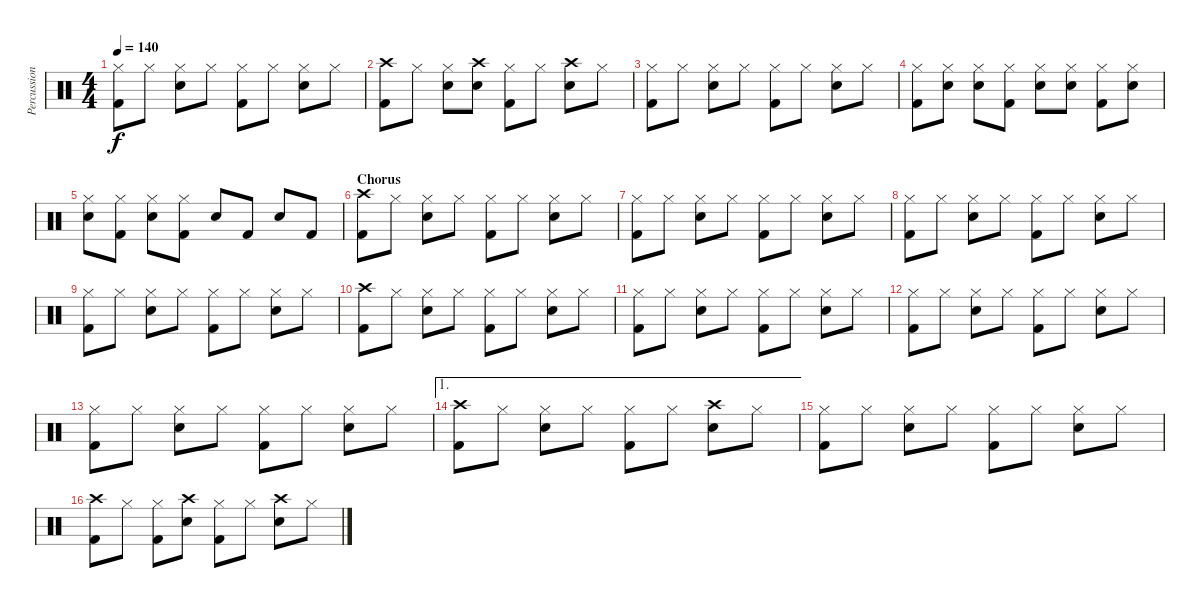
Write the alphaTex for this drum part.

\track ("Percussion" "Percussion") {instrument percussion}
\staff {score}
\articulation defaults
\ts (4 4)
\tempo 140
\clef neutral
\ks c
("Hi-Hat (closed)" "Kick (hit) 2").8{dy f} "Hi-Hat (closed)".8 ("Hi-Hat (closed)" "Electric Snare (hit)").8 "Hi-Hat (closed)".8 ("Hi-Hat (closed)" "Kick (hit) 2").8 "Hi-Hat (closed)".8 ("Hi-Hat (closed)" "Electric Snare (hit)").8 "Hi-Hat (closed)".8 |
("Crash high (hit)" "Kick (hit) 2").8 "Hi-Hat (closed)".8 ("Hi-Hat (closed)" "Electric Snare (hit)").8 ("Crash high (hit)" "Electric Snare (hit)").8 ("Hi-Hat (closed)" "Kick (hit) 2").8 "Hi-Hat (closed)".8 ("Crash high (hit)" "Electric Snare (hit)").8 "Hi-Hat (closed)".8 |
("Hi-Hat (closed)" "Kick (hit) 2").8 "Hi-Hat (closed)".8 ("Hi-Hat (closed)" "Electric Snare (hit)").8 "Hi-Hat (closed)".8 ("Hi-Hat (closed)" "Kick (hit) 2").8 "Hi-Hat (closed)".8 ("Hi-Hat (closed)" "Electric Snare (hit)").8 "Hi-Hat (closed)".8 |
("Hi-Hat (closed)" "Kick (hit) 2").8 ("Hi-Hat (closed)" "Electric Snare (hit)").8 ("Hi-Hat (closed)" "Electric Snare (hit)").8 ("Hi-Hat (closed)" "Kick (hit) 2").8 ("Hi-Hat (closed)" "Electric Snare (hit)").8 ("Hi-Hat (closed)" "Electric Snare (hit)").8 ("Hi-Hat (closed)" "Kick (hit) 2").8 ("Hi-Hat (closed)" "Electric Snare (hit)").8 |
("Hi-Hat (closed)" "Electric Snare (hit)").8 ("Hi-Hat (closed)" "Kick (hit) 2").8 ("Hi-Hat (closed)" "Electric Snare (hit)").8 ("Hi-Hat (closed)" "Kick (hit) 2").8 "Electric Snare (hit)".8 "Kick (hit) 2".8 "Electric Snare (hit)".8 "Kick (hit) 2".8 |
\section ("" "Chorus")
("Crash high (hit)" "Kick (hit) 2").8 "Hi-Hat (closed)".8 ("Hi-Hat (closed)" "Electric Snare (hit)").8 "Hi-Hat (closed)".8 ("Hi-Hat (closed)" "Kick (hit) 2").8 "Hi-Hat (closed)".8 ("Hi-Hat (closed)" "Electric Snare (hit)").8 "Hi-Hat (closed)".8 |
("Hi-Hat (closed)" "Kick (hit) 2").8 "Hi-Hat (closed)".8 ("Hi-Hat (closed)" "Electric Snare (hit)").8 "Hi-Hat (closed)".8 ("Hi-Hat (closed)" "Kick (hit) 2").8 "Hi-Hat (closed)".8 ("Hi-Hat (closed)" "Electric Snare (hit)").8 "Hi-Hat (closed)".8 |
("Hi-Hat (closed)" "Kick (hit) 2").8 "Hi-Hat (closed)".8 ("Hi-Hat (closed)" "Electric Snare (hit)").8 "Hi-Hat (closed)".8 ("Hi-Hat (closed)" "Kick (hit) 2").8 "Hi-Hat (closed)".8 ("Hi-Hat (closed)" "Electric Snare (hit)").8 "Hi-Hat (closed)".8 |
("Hi-Hat (closed)" "Kick (hit) 2").8 "Hi-Hat (closed)".8 ("Hi-Hat (closed)" "Electric Snare (hit)").8 "Hi-Hat (closed)".8 ("Hi-Hat (closed)" "Kick (hit) 2").8 "Hi-Hat (closed)".8 ("Hi-Hat (closed)" "Electric Snare (hit)").8 "Hi-Hat (closed)".8 |
("Crash high (hit)" "Kick (hit) 2").8 "Hi-Hat (closed)".8 ("Hi-Hat (closed)" "Electric Snare (hit)").8 "Hi-Hat (closed)".8 ("Hi-Hat (closed)" "Kick (hit) 2").8 "Hi-Hat (closed)".8 ("Hi-Hat (closed)" "Electric Snare (hit)").8 "Hi-Hat (closed)".8 |
("Hi-Hat (closed)" "Kick (hit) 2").8 "Hi-Hat (closed)".8 ("Hi-Hat (closed)" "Electric Snare (hit)").8 "Hi-Hat (closed)".8 ("Hi-Hat (closed)" "Kick (hit) 2").8 "Hi-Hat (closed)".8 ("Hi-Hat (closed)" "Electric Snare (hit)").8 "Hi-Hat (closed)".8 |
("Hi-Hat (closed)" "Kick (hit) 2").8 "Hi-Hat (closed)".8 ("Hi-Hat (closed)" "Electric Snare (hit)").8 "Hi-Hat (closed)".8 ("Hi-Hat (closed)" "Kick (hit) 2").8 "Hi-Hat (closed)".8 ("Hi-Hat (closed)" "Electric Snare (hit)").8 "Hi-Hat (closed)".8 |
("Hi-Hat (closed)" "Kick (hit) 2").8 "Hi-Hat (closed)".8 ("Hi-Hat (closed)" "Electric Snare (hit)").8 "Hi-Hat (closed)".8 ("Hi-Hat (closed)" "Kick (hit) 2").8 "Hi-Hat (closed)".8 ("Hi-Hat (closed)" "Electric Snare (hit)").8 "Hi-Hat (closed)".8 |
\ae 1
("Crash high (hit)" "Kick (hit) 2").8 "Hi-Hat (closed)".8 ("Hi-Hat (closed)" "Electric Snare (hit)").8 "Hi-Hat (closed)".8 ("Hi-Hat (closed)" "Kick (hit) 2").8 "Hi-Hat (closed)".8 ("Crash high (hit)" "Electric Snare (hit)").8 "Hi-Hat (closed)".8 |
("Hi-Hat (closed)" "Kick (hit) 2").8 "Hi-Hat (closed)".8 ("Hi-Hat (closed)" "Electric Snare (hit)").8 "Hi-Hat (closed)".8 ("Hi-Hat (closed)" "Kick (hit) 2").8 "Hi-Hat (closed)".8 ("Hi-Hat (closed)" "Electric Snare (hit)").8 "Hi-Hat (closed)".8 |
("Crash high (hit)" "Kick (hit) 2").8 "Hi-Hat (closed)".8 ("Hi-Hat (closed)" "Kick (hit) 2").8 ("Crash high (hit)" "Electric Snare (hit)").8 ("Hi-Hat (closed)" "Kick (hit) 2").8 "Hi-Hat (closed)".8 ("Crash high (hit)" "Electric Snare (hit)").8 "Hi-Hat (closed)".8
